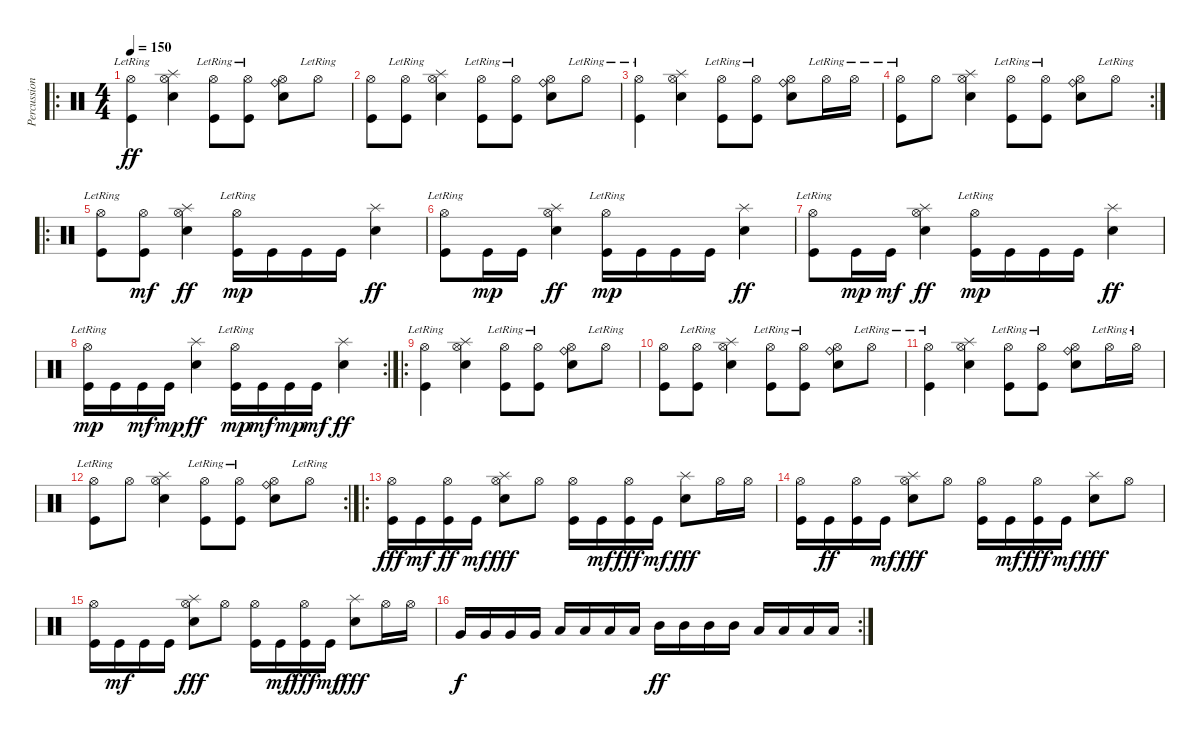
\track ("Percussion" "Percussion") {instrument percussion}
\staff {score}
\articulation defaults
\ro
\ts (4 4)
\tempo 150
\clef neutral
\ks c
("Kick (hit)" "Hi-Hat (open)"{lr}).4{dy ff} ("Snare (hit) 2" "Hi-Hat (open)" "Splash (hit)").4 ("Kick (hit)" "Hi-Hat (open)"{lr}).8 ("Kick (hit)" "Hi-Hat (open)"{lr}).8 ("Snare (hit) 2" "Ride (bell)" "Hi-Hat (open)").8 "Hi-Hat (open)"{lr}.8 |
("Kick (hit)" "Hi-Hat (open)").8 ("Kick (hit)" "Hi-Hat (open)"{lr}).8 ("Snare (hit) 2" "Hi-Hat (open)" "Splash (hit)").4 ("Kick (hit)" "Hi-Hat (open)"{lr}).8 ("Kick (hit)" "Hi-Hat (open)"{lr}).8 ("Snare (hit) 2" "Ride (bell)" "Hi-Hat (open)").8 "Hi-Hat (open)"{lr}.8 |
("Kick (hit)" "Hi-Hat (open)"{lr}).4 ("Snare (hit) 2" "Hi-Hat (open)" "Splash (hit)").4 ("Kick (hit)" "Hi-Hat (open)"{lr}).8 ("Kick (hit)" "Hi-Hat (open)"{lr}).8 ("Snare (hit) 2" "Ride (bell)" "Hi-Hat (open)").8 "Hi-Hat (open)"{lr}.16 "Hi-Hat (open)"{lr}.16 |
\rc 2
("Kick (hit)" "Hi-Hat (open)"{lr}).8 "Hi-Hat (open)".8 ("Snare (hit) 2" "Hi-Hat (open)" "Splash (hit)").4 ("Kick (hit)" "Hi-Hat (open)"{lr}).8 ("Kick (hit)" "Hi-Hat (open)"{lr}).8 ("Snare (hit) 2" "Ride (bell)" "Hi-Hat (open)").8 "Hi-Hat (open)"{lr}.8 |
\ro
("Kick (hit)" "Hi-Hat (open)"{lr}).8 ("Hi-Hat (open)" "Kick (hit)").8{dy mf} ("Snare (hit) 2" "Hi-Hat (open)" "Splash (hit)").4{dy ff} ("Hi-Hat (open)"{lr} "Kick (hit)").16{dy mp} "Kick (hit)".16 "Kick (hit)".16 "Kick (hit)".16 ("Snare (hit) 2" "Splash (hit)").4{dy ff} |
("Kick (hit)" "Hi-Hat (open)"{lr}).8 "Kick (hit)".16{dy mp} "Kick (hit)".16 ("Snare (hit) 2" "Hi-Hat (open)" "Splash (hit)").4{dy ff} ("Hi-Hat (open)"{lr} "Kick (hit)").16{dy mp} "Kick (hit)".16 "Kick (hit)".16 "Kick (hit)".16 ("Snare (hit) 2" "Splash (hit)").4{dy ff} |
("Kick (hit)" "Hi-Hat (open)"{lr}).8 "Kick (hit)".16{dy mp} "Kick (hit)".16{dy mf} ("Snare (hit) 2" "Hi-Hat (open)" "Splash (hit)").4{dy ff} ("Hi-Hat (open)"{lr} "Kick (hit)").16{dy mp} "Kick (hit)".16 "Kick (hit)".16 "Kick (hit)".16 ("Snare (hit) 2" "Splash (hit)").4{dy ff} |
\rc 2
("Hi-Hat (open)"{lr} "Kick (hit)").16{dy mp} "Kick (hit)".16 "Kick (hit)".16{dy mf} "Kick (hit)".16{dy mp} ("Snare (hit) 2" "Splash (hit)").4{dy ff} ("Hi-Hat (open)"{lr} "Kick (hit)").16{dy mp} "Kick (hit)".16{dy mf} "Kick (hit)".16{dy mp} "Kick (hit)".16{dy mf} ("Snare (hit) 2" "Splash (hit)").4{dy ff} |
\ro
("Kick (hit)" "Hi-Hat (open)"{lr}).4 ("Snare (hit) 2" "Hi-Hat (open)" "Splash (hit)").4 ("Kick (hit)" "Hi-Hat (open)"{lr}).8 ("Kick (hit)" "Hi-Hat (open)"{lr}).8 ("Snare (hit) 2" "Ride (bell)" "Hi-Hat (open)").8 "Hi-Hat (open)"{lr}.8 |
("Kick (hit)" "Hi-Hat (open)").8 ("Kick (hit)" "Hi-Hat (open)"{lr}).8 ("Snare (hit) 2" "Hi-Hat (open)" "Splash (hit)").4 ("Kick (hit)" "Hi-Hat (open)"{lr}).8 ("Kick (hit)" "Hi-Hat (open)"{lr}).8 ("Snare (hit) 2" "Ride (bell)" "Hi-Hat (open)").8 "Hi-Hat (open)"{lr}.8 |
("Kick (hit)" "Hi-Hat (open)"{lr}).4 ("Snare (hit) 2" "Hi-Hat (open)" "Splash (hit)").4 ("Kick (hit)" "Hi-Hat (open)"{lr}).8 ("Kick (hit)" "Hi-Hat (open)"{lr}).8 ("Snare (hit) 2" "Ride (bell)" "Hi-Hat (open)").8 "Hi-Hat (open)"{lr}.16 "Hi-Hat (open)"{lr}.16 |
\rc 2
("Kick (hit)" "Hi-Hat (open)"{lr}).8 "Hi-Hat (open)".8 ("Snare (hit) 2" "Hi-Hat (open)" "Splash (hit)").4 ("Kick (hit)" "Hi-Hat (open)"{lr}).8 ("Kick (hit)" "Hi-Hat (open)"{lr}).8 ("Snare (hit) 2" "Ride (bell)" "Hi-Hat (open)").8 "Hi-Hat (open)"{lr}.8 |
\ro
("Kick (hit)" "Hi-Hat (open)").16{dy fff} "Kick (hit)".16{dy mf} ("Kick (hit)" "Hi-Hat (open)").16{dy ff} "Kick (hit)".16{dy mf} ("Snare (hit) 2" "Splash (hit)" "Hi-Hat (open)").8{dy fff} "Hi-Hat (open)".8 ("Kick (hit)" "Hi-Hat (open)").16 "Kick (hit)".16{dy mf} ("Kick (hit)" "Hi-Hat (open)").16{dy fff} "Kick (hit)".16{dy mf} ("Snare (hit) 2" "Splash (hit)").8{dy fff} "Hi-Hat (open)".16 "Hi-Hat (open)".16 |
("Kick (hit)" "Hi-Hat (open)").16 "Kick (hit)".16{dy ff} ("Kick (hit)" "Hi-Hat (open)").16 "Kick (hit)".16{dy mf} ("Snare (hit) 2" "Splash (hit)" "Hi-Hat (open)").8{dy fff} "Hi-Hat (open)".8 ("Kick (hit)" "Hi-Hat (open)").16 "Kick (hit)".16{dy mf} ("Kick (hit)" "Hi-Hat (open)").16{dy fff} "Kick (hit)".16{dy mf} ("Snare (hit) 2" "Splash (hit)").8{dy fff} "Hi-Hat (open)".8 |
("Kick (hit)" "Hi-Hat (open)").16 "Kick (hit)".16{dy mf} "Kick (hit)".16 "Kick (hit)".16 ("Snare (hit) 2" "Splash (hit)" "Hi-Hat (open)").8{dy fff} "Hi-Hat (open)".8 ("Kick (hit)" "Hi-Hat (open)").16 "Kick (hit)".16{dy mf} ("Kick (hit)" "Hi-Hat (open)").16{dy fff} "Kick (hit)".16{dy mf} ("Snare (hit) 2" "Splash (hit)").8{dy fff} "Hi-Hat (open)".16 "Hi-Hat (open)".16 |
\rc 2 "Very Low Tom (hit)".16{dy f} "Very Low Tom (hit)".16 "Very Low Tom (hit)".16 "Very Low Tom (hit)".16 "Low Tom (hit)".16 "Low Tom (hit)".16 "Low Tom (hit)".16 "Low Tom (hit)".16 "Mid Tom (hit)".16{dy ff} "Mid Tom (hit)".16 "Mid Tom (hit)".16 "Mid Tom (hit)".16 "Low Tom (hit)".16 "Low Tom (hit)".16 "Low Tom (hit)".16 "Low Tom (hit)".16
